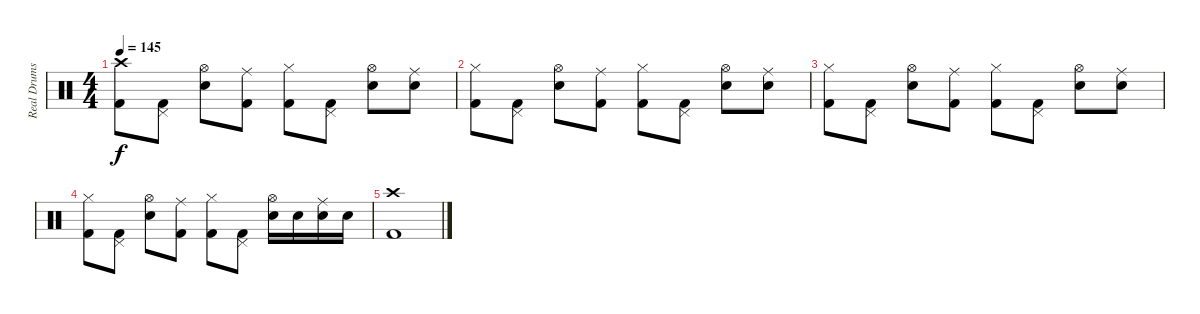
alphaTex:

\track ("Real Drums" "Real Drums") {instrument percussion}
\staff {score}
\articulation defaults
\ts (4 4)
\tempo 145
\clef neutral
\ks c
("Kick (hit) 2" "Crash high (hit)").8{dy f} ("Kick (hit) 2" "Pedal Hi-Hat (hit)").8 ("Electric Snare (hit)" "Hi-Hat (open)").8 ("Kick (hit) 2" "Ride (middle)").8 ("Kick (hit) 2" "Hi-Hat (closed)").8 ("Kick (hit) 2" "Pedal Hi-Hat (hit)").8 ("Electric Snare (hit)" "Hi-Hat (open)").8 ("Electric Snare (hit)" "Ride (middle)").8 |
("Kick (hit) 2" "Hi-Hat (closed)").8 ("Kick (hit) 2" "Pedal Hi-Hat (hit)").8 ("Electric Snare (hit)" "Hi-Hat (open)").8 ("Kick (hit) 2" "Ride (middle)").8 ("Kick (hit) 2" "Hi-Hat (closed)").8 ("Kick (hit) 2" "Pedal Hi-Hat (hit)").8 ("Electric Snare (hit)" "Hi-Hat (open)").8 ("Electric Snare (hit)" "Ride (middle)").8 |
("Kick (hit) 2" "Hi-Hat (closed)").8 ("Kick (hit) 2" "Pedal Hi-Hat (hit)").8 ("Electric Snare (hit)" "Hi-Hat (open)").8 ("Kick (hit) 2" "Ride (middle)").8 ("Kick (hit) 2" "Hi-Hat (closed)").8 ("Kick (hit) 2" "Pedal Hi-Hat (hit)").8 ("Electric Snare (hit)" "Hi-Hat (open)").8 ("Electric Snare (hit)" "Ride (middle)").8 |
("Kick (hit) 2" "Hi-Hat (closed)").8 ("Kick (hit) 2" "Pedal Hi-Hat (hit)").8 ("Electric Snare (hit)" "Hi-Hat (open)").8 ("Kick (hit) 2" "Ride (middle)").8 ("Kick (hit) 2" "Hi-Hat (closed)").8 ("Kick (hit) 2" "Pedal Hi-Hat (hit)").8 ("Electric Snare (hit)" "Hi-Hat (open)").16 "Snare (hit) 2".16 ("Electric Snare (hit)" "Ride (middle)").16 "Snare (hit) 2".16 |
("Kick (hit) 2" "Crash high (hit)").1
